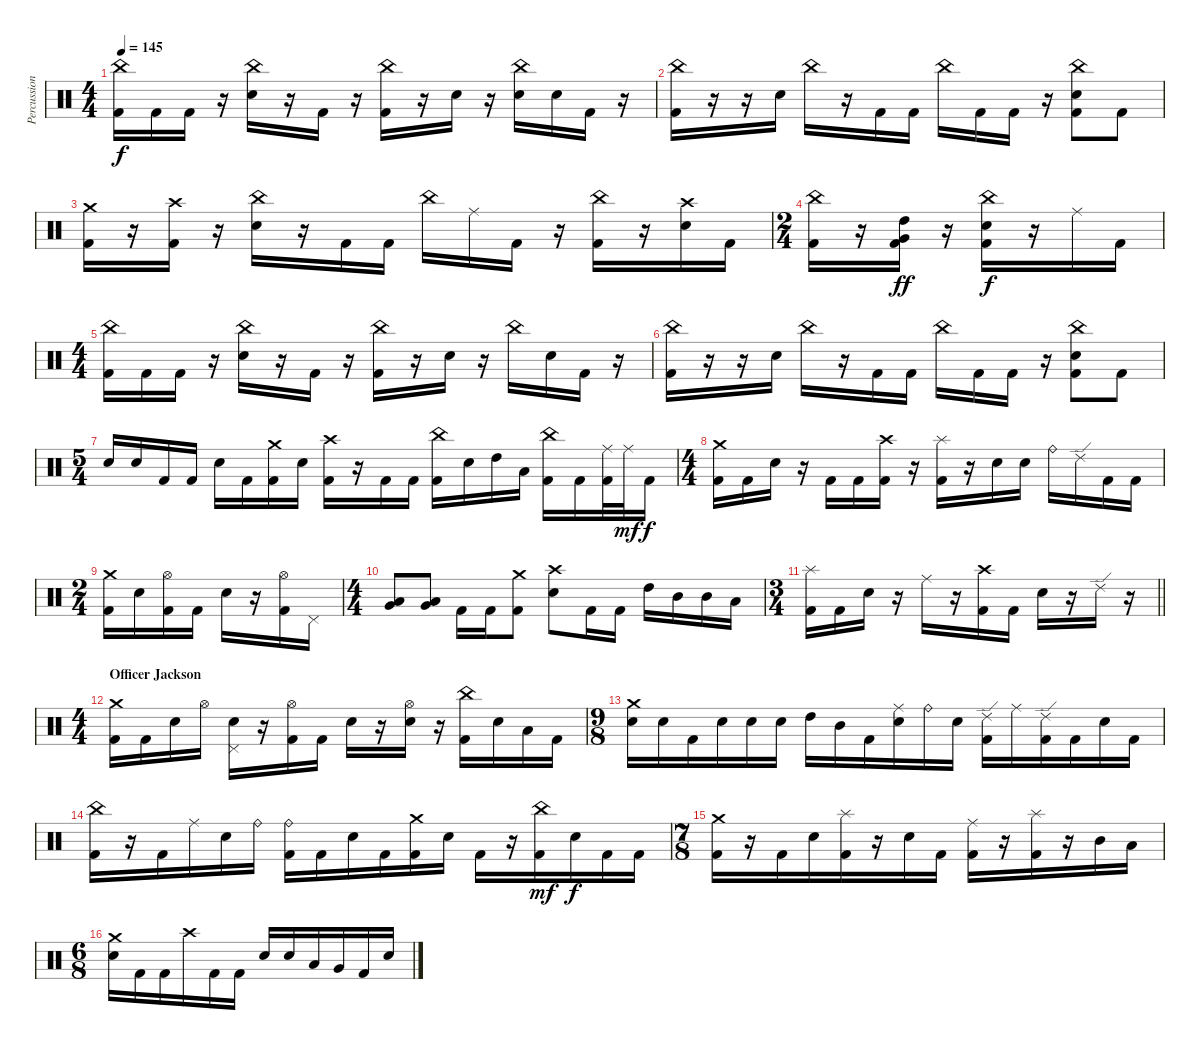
\track ("Percussion" "Percussion") {instrument percussion}
\staff {score}
\articulation defaults
\ts (4 4)
\tempo 145
\clef neutral
\ks c
("China (hit)" "Kick (hit) 2").16{dy f} "Kick (hit) 2".16 "Kick (hit) 2".16 r.16 ("China (hit)" "Electric Snare (hit)").16 r.16 "Kick (hit) 2".16 r.16 ("China (hit)" "Kick (hit) 2").16 r.16 "Electric Snare (hit)".16 r.16 ("China (hit)" "Electric Snare (hit)").16 "Electric Snare (hit)".16 "Kick (hit) 2".16 r.16 |
("China (hit)" "Kick (hit) 2").16 r.16 r.16 "Electric Snare (hit)".16 "China (hit)".16 r.16 "Kick (hit) 2".16 "Kick (hit) 2".16 "China (hit)".16 "Kick (hit) 2".16 "Kick (hit) 2".16 r.16 ("China (hit)" "Electric Snare (hit)" "Kick (hit) 2").8 "Kick (hit) 2".8 |
("Crash medium (hit)" "Kick (hit) 2").16 r.16 ("Crash high (hit)" "Kick (hit) 2").16 r.16 ("China (hit)" "Electric Snare (hit)").16 r.16 "Kick (hit) 2".16 "Kick (hit) 2".16 "China (hit)".16 "Ride (middle)".16 "Kick (hit) 2".16 r.16 ("China (hit)" "Kick (hit) 2").16 r.16 ("Crash high (hit)" "Electric Snare (hit)").16 "Kick (hit) 2".16 |
\ts (2 4)
("China (hit)" "Kick (hit) 2").16 r.16 ("High Tom (hit)" "Very Low Tom (hit)" "Kick (hit) 2").16{dy ff} r.16 ("China (hit)" "Electric Snare (hit)" "Kick (hit) 2").16{dy f} r.16 "Ride (middle)".16 "Kick (hit) 2".16 |
\ts (4 4)
("China (hit)" "Kick (hit) 2").16 "Kick (hit) 2".16 "Kick (hit) 2".16 r.16 ("China (hit)" "Electric Snare (hit)").16 r.16 "Kick (hit) 2".16 r.16 ("China (hit)" "Kick (hit) 2").16 r.16 "Electric Snare (hit)".16 r.16 "China (hit)".16 "Electric Snare (hit)".16 "Kick (hit) 2".16 r.16 |
("China (hit)" "Kick (hit) 2").16 r.16 r.16 "Electric Snare (hit)".16 "China (hit)".16 r.16 "Kick (hit) 2".16 "Kick (hit) 2".16 "China (hit)".16 "Kick (hit) 2".16 "Kick (hit) 2".16 r.16 ("China (hit)" "Electric Snare (hit)" "Kick (hit) 2").8 "Kick (hit) 2".8 |
\ts (5 4)
"Electric Snare (hit)".16 "Electric Snare (hit)".16 "Kick (hit) 2".16 "Kick (hit) 2".16 "Electric Snare (hit)".16 "Kick (hit) 2".16 ("Crash medium (hit)" "Kick (hit) 2").16 "Electric Snare (hit)".16 ("Crash high (hit)" "Kick (hit) 2").16 r.16 "Kick (hit) 2".16 "Kick (hit) 2".16 ("China (hit)" "Kick (hit) 2").16 "Electric Snare (hit)".16 "High Tom (hit)".16 "Low Tom (hit)".16 ("China (hit)" "Kick (hit) 2").16 "Kick (hit) 2".16 ("Ride (middle)" "Kick (hit) 2").32 "Ride (middle)".32{dy mf} "Kick (hit) 2".16{dy f} |
\ts (4 4)
("Crash medium (hit)" "Kick (hit) 2").16 "Kick (hit) 2".16 "Electric Snare (hit)".16 r.16 "Kick (hit) 2".16 "Kick (hit) 2".16 ("Crash high (hit)" "Kick (hit) 2").16 r.16 ("Splash (hit)" "Kick (hit) 2").16 r.16 "Electric Snare (hit)".16 "Electric Snare (hit)".16 "Ride (bell)".16 "Ride (edge) 2".16 "Kick (hit) 2".16 "Kick (hit) 2".16 |
\ts (2 4)
("Crash medium (hit)" "Kick (hit) 2").16 "Electric Snare (hit)".16 ("Hi-Hat (open)" "Kick (hit) 2").16 "Kick (hit) 2".16 "Electric Snare (hit)".16 r.16 ("Hi-Hat (open)" "Kick (hit) 2").16 "Pedal Hi-Hat (hit)".16 |
\ts (4 4)
("Low Tom (hit)" "Very Low Tom (hit)").8 ("Low Tom (hit)" "Very Low Tom (hit)").8 "Kick (hit) 2".16 "Kick (hit) 2".16 ("Crash medium (hit)" "Kick (hit) 2").8 ("Crash high (hit)" "Electric Snare (hit)").8 "Kick (hit) 2".16 "Kick (hit) 2".16 "High Tom (hit)".16 "Mid Tom (hit)".16 "Mid Tom (hit)".16 "Low Tom (hit)".16 |
\ts (3 4)
\barLineRight lightlight
("Splash (hit)" "Kick (hit) 2").16 "Kick (hit) 2".16 "Electric Snare (hit)".16 r.16 "Ride (middle)".16 r.16 ("Crash high (hit)" "Kick (hit) 2").16 "Kick (hit) 2".16 "Electric Snare (hit)".16 r.16 "Ride (edge) 2".16 r.16 |
\ts (4 4)
\section ("" "Officer Jackson")
("Crash medium (hit)" "Kick (hit) 2").16 "Kick (hit) 2".16 "Electric Snare (hit)".16 "Hi-Hat (open)".16 ("Pedal Hi-Hat (hit)" "Electric Snare (hit)").16 r.16 ("Hi-Hat (open)" "Kick (hit) 2").16 "Kick (hit) 2".16 "Electric Snare (hit)".16 r.16 ("Hi-Hat (open)" "Electric Snare (hit)").16 r.16 ("China (hit)" "Kick (hit) 2").16 "Electric Snare (hit)".16 "Low Tom (hit)".16 "Kick (hit) 2".16 |
\ts (9 8)
("Crash medium (hit)" "Electric Snare (hit)").16 "Electric Snare (hit)".16 "Kick (hit) 2".16 "Electric Snare (hit)".16 "Electric Snare (hit)".16 "Electric Snare (hit)".16 "High Tom (hit)".16 "Mid Tom (hit)".16 "Kick (hit) 2".16 ("Ride (middle)" "Electric Snare (hit)").16 "Ride (bell)".16 "Electric Snare (hit)".16 ("Ride (edge) 2" "Kick (hit) 2").16 "Ride (middle)".16 ("Ride (edge) 2" "Kick (hit) 2").16 "Kick (hit) 2".16 "Electric Snare (hit)".16 "Kick (hit) 2".16 |
("China (hit)" "Kick (hit) 2").16 r.16 "Kick (hit) 2".16 "Ride (middle)".16 "Electric Snare (hit)".16 "Ride (bell)".16 ("Ride (bell)" "Kick (hit) 2").16 "Kick (hit) 2".16 "Electric Snare (hit)".16 "Kick (hit) 2".16 ("Crash medium (hit)" "Kick (hit) 2").16 "Electric Snare (hit)".16 "Kick (hit) 2".16 r.16 ("China (hit)" "Kick (hit) 2").16{dy mf} "Electric Snare (hit)".16{dy f} "Kick (hit) 2".16 "Kick (hit) 2".16 |
\ts (7 8)
("Crash medium (hit)" "Kick (hit) 2").16 r.16 "Kick (hit) 2".16 "Electric Snare (hit)".16 ("Splash (hit)" "Kick (hit) 2").16 r.16 "Electric Snare (hit)".16 "Kick (hit) 2".16 ("Ride (middle)" "Kick (hit) 2").16 r.16 ("Splash (hit)" "Kick (hit) 2").16 r.16 "Mid Tom (hit)".16 "Low Tom (hit)".16 |
\ts (6 8)
("Crash medium (hit)" "Electric Snare (hit)").16 "Kick (hit) 2".16 "Kick (hit) 2".16 "Crash high (hit)".16 "Kick (hit) 2".16 "Kick (hit) 2".16 "Electric Snare (hit)".16 "Electric Snare (hit)".16 "Low Tom (hit)".16 "Very Low Tom (hit)".16 "Kick (hit) 2".16 "Electric Snare (hit)".16
